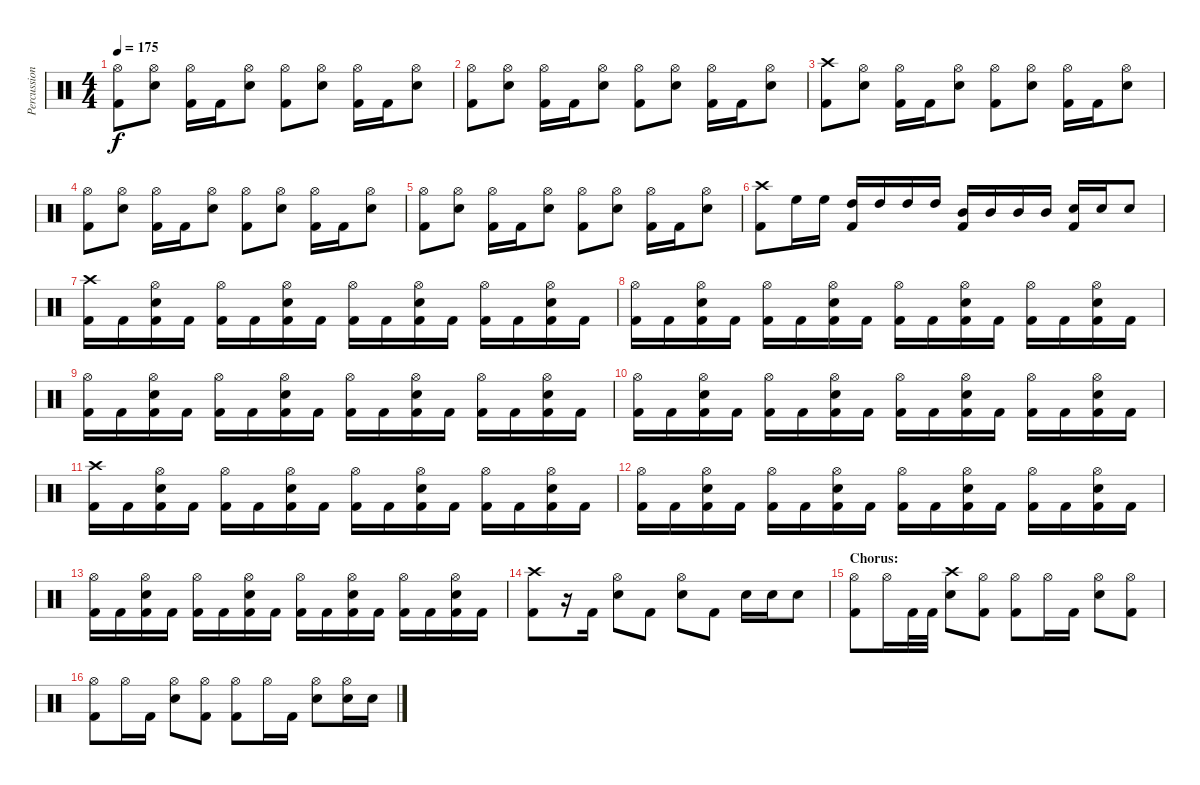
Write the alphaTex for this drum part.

\track ("Percussion" "Percussion") {instrument percussion}
\staff {score}
\articulation defaults
\ts (4 4)
\tempo 175
\clef neutral
\ks c
("Hi-Hat (open)" "Kick (hit) 2").8{dy f} ("Hi-Hat (open)" "Electric Snare (hit)").8 ("Hi-Hat (open)" "Kick (hit) 2").16 "Kick (hit) 2".16 ("Hi-Hat (open)" "Electric Snare (hit)").8 ("Hi-Hat (open)" "Kick (hit) 2").8 ("Hi-Hat (open)" "Electric Snare (hit)").8 ("Hi-Hat (open)" "Kick (hit) 2").16 "Kick (hit) 2".16 ("Hi-Hat (open)" "Electric Snare (hit)").8 |
("Hi-Hat (open)" "Kick (hit) 2").8 ("Hi-Hat (open)" "Electric Snare (hit)").8 ("Hi-Hat (open)" "Kick (hit) 2").16 "Kick (hit) 2".16 ("Hi-Hat (open)" "Electric Snare (hit)").8 ("Hi-Hat (open)" "Kick (hit) 2").8 ("Hi-Hat (open)" "Electric Snare (hit)").8 ("Hi-Hat (open)" "Kick (hit) 2").16 "Kick (hit) 2".16 ("Hi-Hat (open)" "Electric Snare (hit)").8 |
("Crash high (hit)" "Kick (hit) 2").8 ("Hi-Hat (open)" "Electric Snare (hit)").8 ("Hi-Hat (open)" "Kick (hit) 2").16 "Kick (hit) 2".16 ("Hi-Hat (open)" "Electric Snare (hit)").8 ("Hi-Hat (open)" "Kick (hit) 2").8 ("Hi-Hat (open)" "Electric Snare (hit)").8 ("Hi-Hat (open)" "Kick (hit) 2").16 "Kick (hit) 2".16 ("Hi-Hat (open)" "Electric Snare (hit)").8 |
("Hi-Hat (open)" "Kick (hit) 2").8 ("Hi-Hat (open)" "Electric Snare (hit)").8 ("Hi-Hat (open)" "Kick (hit) 2").16 "Kick (hit) 2".16 ("Hi-Hat (open)" "Electric Snare (hit)").8 ("Hi-Hat (open)" "Kick (hit) 2").8 ("Hi-Hat (open)" "Electric Snare (hit)").8 ("Hi-Hat (open)" "Kick (hit) 2").16 "Kick (hit) 2".16 ("Hi-Hat (open)" "Electric Snare (hit)").8 |
("Hi-Hat (open)" "Kick (hit) 2").8 ("Hi-Hat (open)" "Electric Snare (hit)").8 ("Hi-Hat (open)" "Kick (hit) 2").16 "Kick (hit) 2".16 ("Hi-Hat (open)" "Electric Snare (hit)").8 ("Hi-Hat (open)" "Kick (hit) 2").8 ("Hi-Hat (open)" "Electric Snare (hit)").8 ("Hi-Hat (open)" "Kick (hit) 2").16 "Kick (hit) 2".16 ("Hi-Hat (open)" "Electric Snare (hit)").8 |
("Crash high (hit)" "Kick (hit) 2").8 "High Floor Tom (hit)".16 "High Floor Tom (hit)".16 ("High Tom (hit)" "Kick (hit) 2").16 "High Tom (hit)".16 "High Tom (hit)".16 "High Tom (hit)".16 ("Mid Tom (hit)" "Kick (hit) 2").16 "Mid Tom (hit)".16 "Mid Tom (hit)".16 "Mid Tom (hit)".16 ("Electric Snare (hit)" "Kick (hit) 2").16 "Electric Snare (hit)".16 "Electric Snare (hit)".8 |
("Crash high (hit)" "Kick (hit) 2").16 "Kick (hit) 2".16 ("Hi-Hat (open)" "Electric Snare (hit)" "Kick (hit) 2").16 "Kick (hit) 2".16 ("Hi-Hat (open)" "Kick (hit) 2").16 "Kick (hit) 2".16 ("Hi-Hat (open)" "Electric Snare (hit)" "Kick (hit) 2").16 "Kick (hit) 2".16 ("Hi-Hat (open)" "Kick (hit) 2").16 "Kick (hit) 2".16 ("Hi-Hat (open)" "Electric Snare (hit)" "Kick (hit) 2").16 "Kick (hit) 2".16 ("Hi-Hat (open)" "Kick (hit) 2").16 "Kick (hit) 2".16 ("Hi-Hat (open)" "Electric Snare (hit)" "Kick (hit) 2").16 "Kick (hit) 2".16 |
("Hi-Hat (open)" "Kick (hit) 2").16 "Kick (hit) 2".16 ("Hi-Hat (open)" "Electric Snare (hit)" "Kick (hit) 2").16 "Kick (hit) 2".16 ("Hi-Hat (open)" "Kick (hit) 2").16 "Kick (hit) 2".16 ("Hi-Hat (open)" "Electric Snare (hit)" "Kick (hit) 2").16 "Kick (hit) 2".16 ("Hi-Hat (open)" "Kick (hit) 2").16 "Kick (hit) 2".16 ("Hi-Hat (open)" "Electric Snare (hit)" "Kick (hit) 2").16 "Kick (hit) 2".16 ("Hi-Hat (open)" "Kick (hit) 2").16 "Kick (hit) 2".16 ("Hi-Hat (open)" "Electric Snare (hit)" "Kick (hit) 2").16 "Kick (hit) 2".16 |
("Hi-Hat (open)" "Kick (hit) 2").16 "Kick (hit) 2".16 ("Hi-Hat (open)" "Electric Snare (hit)" "Kick (hit) 2").16 "Kick (hit) 2".16 ("Hi-Hat (open)" "Kick (hit) 2").16 "Kick (hit) 2".16 ("Hi-Hat (open)" "Electric Snare (hit)" "Kick (hit) 2").16 "Kick (hit) 2".16 ("Hi-Hat (open)" "Kick (hit) 2").16 "Kick (hit) 2".16 ("Hi-Hat (open)" "Electric Snare (hit)" "Kick (hit) 2").16 "Kick (hit) 2".16 ("Hi-Hat (open)" "Kick (hit) 2").16 "Kick (hit) 2".16 ("Hi-Hat (open)" "Electric Snare (hit)" "Kick (hit) 2").16 "Kick (hit) 2".16 |
("Hi-Hat (open)" "Kick (hit) 2").16 "Kick (hit) 2".16 ("Hi-Hat (open)" "Electric Snare (hit)" "Kick (hit) 2").16 "Kick (hit) 2".16 ("Hi-Hat (open)" "Kick (hit) 2").16 "Kick (hit) 2".16 ("Hi-Hat (open)" "Electric Snare (hit)" "Kick (hit) 2").16 "Kick (hit) 2".16 ("Hi-Hat (open)" "Kick (hit) 2").16 "Kick (hit) 2".16 ("Hi-Hat (open)" "Electric Snare (hit)" "Kick (hit) 2").16 "Kick (hit) 2".16 ("Hi-Hat (open)" "Kick (hit) 2").16 "Kick (hit) 2".16 ("Hi-Hat (open)" "Electric Snare (hit)" "Kick (hit) 2").16 "Kick (hit) 2".16 |
("Crash high (hit)" "Kick (hit) 2").16 "Kick (hit) 2".16 ("Hi-Hat (open)" "Electric Snare (hit)" "Kick (hit) 2").16 "Kick (hit) 2".16 ("Hi-Hat (open)" "Kick (hit) 2").16 "Kick (hit) 2".16 ("Hi-Hat (open)" "Electric Snare (hit)" "Kick (hit) 2").16 "Kick (hit) 2".16 ("Hi-Hat (open)" "Kick (hit) 2").16 "Kick (hit) 2".16 ("Hi-Hat (open)" "Electric Snare (hit)" "Kick (hit) 2").16 "Kick (hit) 2".16 ("Hi-Hat (open)" "Kick (hit) 2").16 "Kick (hit) 2".16 ("Hi-Hat (open)" "Electric Snare (hit)" "Kick (hit) 2").16 "Kick (hit) 2".16 |
("Hi-Hat (open)" "Kick (hit) 2").16 "Kick (hit) 2".16 ("Hi-Hat (open)" "Electric Snare (hit)" "Kick (hit) 2").16 "Kick (hit) 2".16 ("Hi-Hat (open)" "Kick (hit) 2").16 "Kick (hit) 2".16 ("Hi-Hat (open)" "Electric Snare (hit)" "Kick (hit) 2").16 "Kick (hit) 2".16 ("Hi-Hat (open)" "Kick (hit) 2").16 "Kick (hit) 2".16 ("Hi-Hat (open)" "Electric Snare (hit)" "Kick (hit) 2").16 "Kick (hit) 2".16 ("Hi-Hat (open)" "Kick (hit) 2").16 "Kick (hit) 2".16 ("Hi-Hat (open)" "Electric Snare (hit)" "Kick (hit) 2").16 "Kick (hit) 2".16 |
("Hi-Hat (open)" "Kick (hit) 2").16 "Kick (hit) 2".16 ("Hi-Hat (open)" "Electric Snare (hit)" "Kick (hit) 2").16 "Kick (hit) 2".16 ("Hi-Hat (open)" "Kick (hit) 2").16 "Kick (hit) 2".16 ("Hi-Hat (open)" "Electric Snare (hit)" "Kick (hit) 2").16 "Kick (hit) 2".16 ("Hi-Hat (open)" "Kick (hit) 2").16 "Kick (hit) 2".16 ("Hi-Hat (open)" "Electric Snare (hit)" "Kick (hit) 2").16 "Kick (hit) 2".16 ("Hi-Hat (open)" "Kick (hit) 2").16 "Kick (hit) 2".16 ("Hi-Hat (open)" "Electric Snare (hit)" "Kick (hit) 2").16 "Kick (hit) 2".16 |
("Crash high (hit)" "Kick (hit) 2").8 r.16 "Kick (hit) 2".16 ("Hi-Hat (open)" "Electric Snare (hit)").8 "Kick (hit) 2".8 ("Hi-Hat (open)" "Electric Snare (hit)").8 "Kick (hit) 2".8 "Electric Snare (hit)".16 "Electric Snare (hit)".16 "Electric Snare (hit)".8 |
\section ("" "Chorus:")
("Hi-Hat (open)" "Kick (hit) 2").8 "Hi-Hat (open)".16 "Kick (hit) 2".32 "Kick (hit) 2".32 ("Crash high (hit)" "Electric Snare (hit)").8 ("Hi-Hat (open)" "Kick (hit) 2").8 ("Hi-Hat (open)" "Kick (hit) 2").8 "Hi-Hat (open)".16 "Kick (hit) 2".16 ("Hi-Hat (open)" "Electric Snare (hit)").8 ("Hi-Hat (open)" "Kick (hit) 2").8 |
("Hi-Hat (open)" "Kick (hit) 2").8 "Hi-Hat (open)".16 "Kick (hit) 2".16 ("Hi-Hat (open)" "Electric Snare (hit)").8 ("Hi-Hat (open)" "Kick (hit) 2").8 ("Hi-Hat (open)" "Kick (hit) 2").8 "Hi-Hat (open)".16 "Kick (hit) 2".16 ("Hi-Hat (open)" "Electric Snare (hit)").8 ("Hi-Hat (open)" "Electric Snare (hit)").16 "Electric Snare (hit)".16
